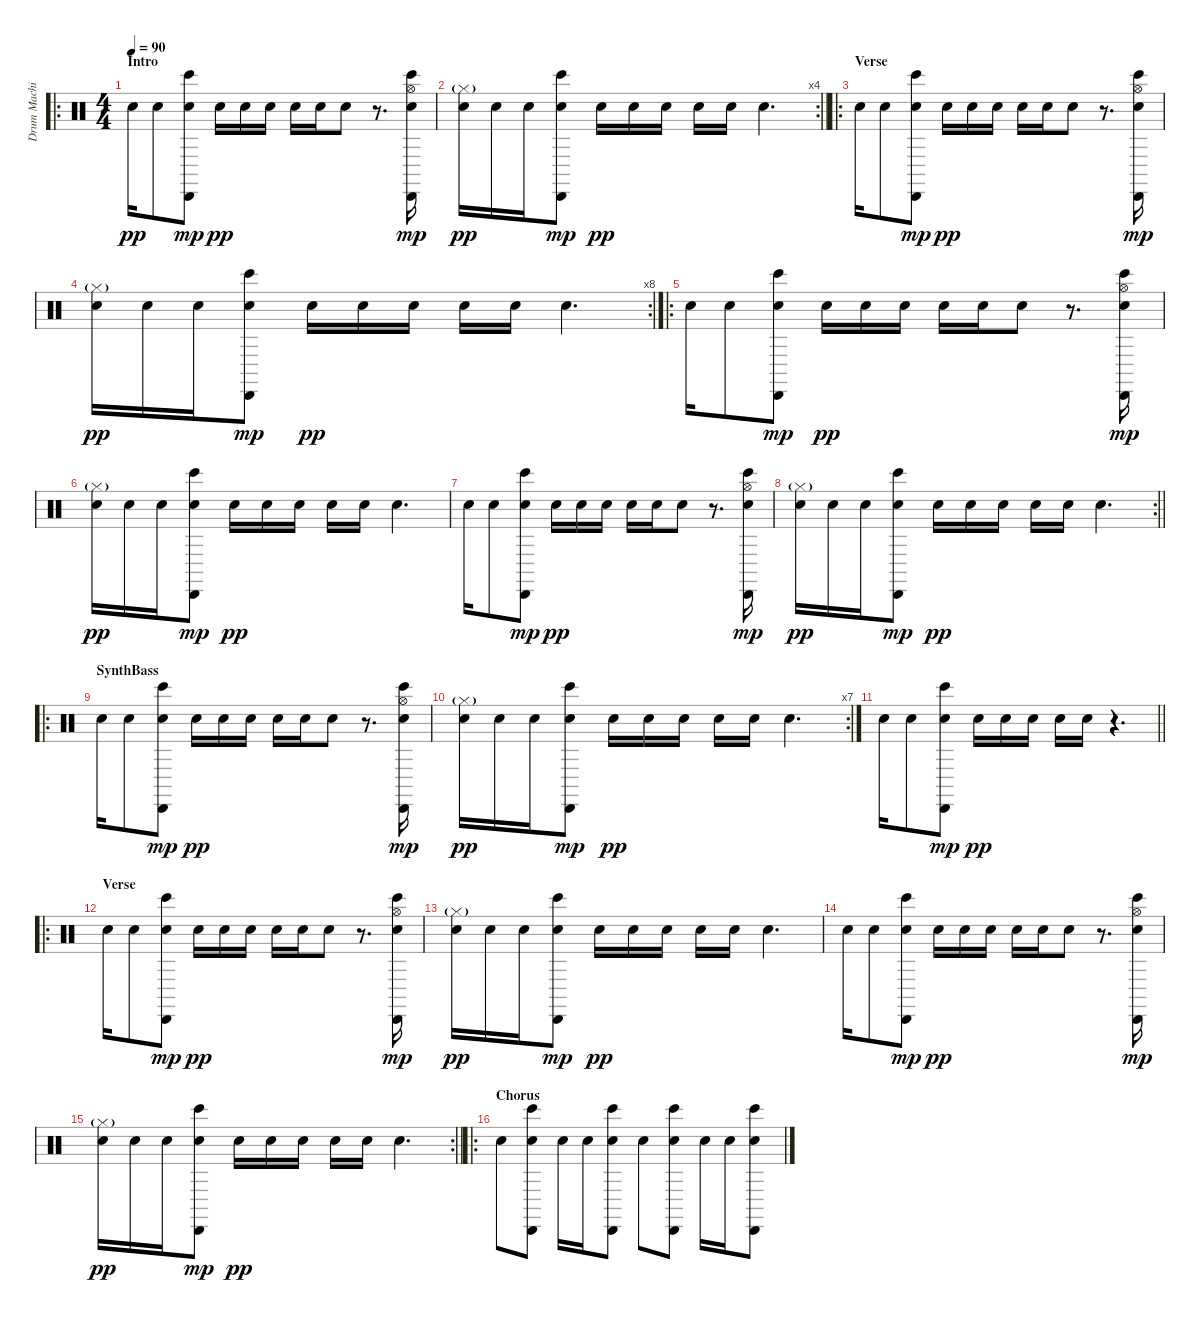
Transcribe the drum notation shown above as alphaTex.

\track ("Drum Machine" "Drum Machi") {instrument percussion}
\staff {score}
\articulation defaults
\ro
\ts (4 4)
\section ("" "Intro")
\tempo 90
\clef neutral
\ks c "Hand Clap (hit)".16{dy pp} "Hand Clap (hit)".8
("Hand Clap (hit)" "Cabasa (hit)" "Bongo High (hit)").8{dy mp} "Hand Clap (hit)".16{dy pp} "Hand Clap (hit)".16 "Hand Clap (hit)".16 "Hand Clap (hit)".16 "Hand Clap (hit)".16 "Hand Clap (hit)".8 r.8{d} ("Hi-Hat (open)" "Hand Clap (hit)" "Cabasa (hit)" "Bongo High (hit)").16{dy mp} |
\rc 4
\barLineRight lightlight
("Hi-Hat (closed)"{g} "Hand Clap (hit)").16{dy pp} "Hand Clap (hit)".16 "Hand Clap (hit)".16 ("Hand Clap (hit)" "Cabasa (hit)" "Bongo High (hit)").8{dy mp} "Hand Clap (hit)".16{dy pp} "Hand Clap (hit)".16 "Hand Clap (hit)".16 "Hand Clap (hit)".16 "Hand Clap (hit)".16 "Hand Clap (hit)".4{d} |
\ro
\section ("" "Verse")
"Hand Clap (hit)".16 "Hand Clap (hit)".8 ("Hand Clap (hit)" "Cabasa (hit)" "Bongo High (hit)").8{dy mp} "Hand Clap (hit)".16{dy pp} "Hand Clap (hit)".16 "Hand Clap (hit)".16 "Hand Clap (hit)".16 "Hand Clap (hit)".16 "Hand Clap (hit)".8 r.8{d} ("Hi-Hat (open)" "Hand Clap (hit)" "Cabasa (hit)" "Bongo High (hit)").16{dy mp} |
\rc 8
("Hi-Hat (closed)"{g} "Hand Clap (hit)").16{dy pp} "Hand Clap (hit)".16 "Hand Clap (hit)".16 ("Hand Clap (hit)" "Cabasa (hit)" "Bongo High (hit)").8{dy mp} "Hand Clap (hit)".16{dy pp} "Hand Clap (hit)".16 "Hand Clap (hit)".16 "Hand Clap (hit)".16 "Hand Clap (hit)".16 "Hand Clap (hit)".4{d} |
\ro "Hand Clap (hit)".16 "Hand Clap (hit)".8
("Hand Clap (hit)" "Cabasa (hit)" "Bongo High (hit)").8{dy mp} "Hand Clap (hit)".16{dy pp} "Hand Clap (hit)".16 "Hand Clap (hit)".16 "Hand Clap (hit)".16 "Hand Clap (hit)".16 "Hand Clap (hit)".8 r.8{d} ("Hi-Hat (open)" "Hand Clap (hit)" "Cabasa (hit)" "Bongo High (hit)").16{dy mp} |
("Hi-Hat (closed)"{g} "Hand Clap (hit)").16{dy pp} "Hand Clap (hit)".16 "Hand Clap (hit)".16 ("Hand Clap (hit)" "Cabasa (hit)" "Bongo High (hit)").8{dy mp} "Hand Clap (hit)".16{dy pp} "Hand Clap (hit)".16 "Hand Clap (hit)".16 "Hand Clap (hit)".16 "Hand Clap (hit)".16 "Hand Clap (hit)".4{d} |
"Hand Clap (hit)".16 "Hand Clap (hit)".8 ("Hand Clap (hit)" "Cabasa (hit)" "Bongo High (hit)").8{dy mp} "Hand Clap (hit)".16{dy pp} "Hand Clap (hit)".16 "Hand Clap (hit)".16 "Hand Clap (hit)".16 "Hand Clap (hit)".16 "Hand Clap (hit)".8 r.8{d} ("Hi-Hat (open)" "Hand Clap (hit)" "Cabasa (hit)" "Bongo High (hit)").16{dy mp} |
\rc 2
\barLineRight lightlight
("Hi-Hat (closed)"{g} "Hand Clap (hit)").16{dy pp} "Hand Clap (hit)".16 "Hand Clap (hit)".16 ("Hand Clap (hit)" "Cabasa (hit)" "Bongo High (hit)").8{dy mp} "Hand Clap (hit)".16{dy pp} "Hand Clap (hit)".16 "Hand Clap (hit)".16 "Hand Clap (hit)".16 "Hand Clap (hit)".16 "Hand Clap (hit)".4{d} |
\ro
\section ("" "SynthBass")
"Hand Clap (hit)".16 "Hand Clap (hit)".8 ("Hand Clap (hit)" "Cabasa (hit)" "Bongo High (hit)").8{dy mp} "Hand Clap (hit)".16{dy pp} "Hand Clap (hit)".16 "Hand Clap (hit)".16 "Hand Clap (hit)".16 "Hand Clap (hit)".16 "Hand Clap (hit)".8 r.8{d} ("Hi-Hat (open)" "Hand Clap (hit)" "Cabasa (hit)" "Bongo High (hit)").16{dy mp} |
\rc 7
("Hi-Hat (closed)"{g} "Hand Clap (hit)").16{dy pp} "Hand Clap (hit)".16 "Hand Clap (hit)".16 ("Hand Clap (hit)" "Cabasa (hit)" "Bongo High (hit)").8{dy mp} "Hand Clap (hit)".16{dy pp} "Hand Clap (hit)".16 "Hand Clap (hit)".16 "Hand Clap (hit)".16 "Hand Clap (hit)".16 "Hand Clap (hit)".4{d} |
\barLineRight lightlight "Hand Clap (hit)".16 "Hand Clap (hit)".8
("Hand Clap (hit)" "Cabasa (hit)" "Bongo High (hit)").8{dy mp} "Hand Clap (hit)".16{dy pp} "Hand Clap (hit)".16 "Hand Clap (hit)".16 "Hand Clap (hit)".16 "Hand Clap (hit)".16 r.4{d} |
\ro
\section ("" "Verse")
"Hand Clap (hit)".16 "Hand Clap (hit)".8 ("Hand Clap (hit)" "Cabasa (hit)" "Bongo High (hit)").8{dy mp} "Hand Clap (hit)".16{dy pp} "Hand Clap (hit)".16 "Hand Clap (hit)".16 "Hand Clap (hit)".16 "Hand Clap (hit)".16 "Hand Clap (hit)".8 r.8{d} ("Hi-Hat (open)" "Hand Clap (hit)" "Cabasa (hit)" "Bongo High (hit)").16{dy mp} |
("Hi-Hat (closed)"{g} "Hand Clap (hit)").16{dy pp} "Hand Clap (hit)".16 "Hand Clap (hit)".16 ("Hand Clap (hit)" "Cabasa (hit)" "Bongo High (hit)").8{dy mp} "Hand Clap (hit)".16{dy pp} "Hand Clap (hit)".16 "Hand Clap (hit)".16 "Hand Clap (hit)".16 "Hand Clap (hit)".16 "Hand Clap (hit)".4{d} |
"Hand Clap (hit)".16 "Hand Clap (hit)".8 ("Hand Clap (hit)" "Cabasa (hit)" "Bongo High (hit)").8{dy mp} "Hand Clap (hit)".16{dy pp} "Hand Clap (hit)".16 "Hand Clap (hit)".16 "Hand Clap (hit)".16 "Hand Clap (hit)".16 "Hand Clap (hit)".8 r.8{d} ("Hi-Hat (open)" "Hand Clap (hit)" "Cabasa (hit)" "Bongo High (hit)").16{dy mp} |
\rc 2
\barLineRight lightlight
("Hi-Hat (closed)"{g} "Hand Clap (hit)").16{dy pp} "Hand Clap (hit)".16 "Hand Clap (hit)".16 ("Hand Clap (hit)" "Cabasa (hit)" "Bongo High (hit)").8{dy mp} "Hand Clap (hit)".16{dy pp} "Hand Clap (hit)".16 "Hand Clap (hit)".16 "Hand Clap (hit)".16 "Hand Clap (hit)".16 "Hand Clap (hit)".4{d} |
\ro
\section ("" "Chorus")
"Hand Clap (hit)".8 ("Hand Clap (hit)" "Cabasa (hit)" "Bongo High (hit)").8 "Hand Clap (hit)".16 "Hand Clap (hit)".16 ("Hand Clap (hit)" "Cabasa (hit)" "Bongo High (hit)").8 "Hand Clap (hit)".8 ("Hand Clap (hit)" "Cabasa (hit)" "Bongo High (hit)").8 "Hand Clap (hit)".16 "Hand Clap (hit)".16 ("Hand Clap (hit)" "Cabasa (hit)" "Bongo High (hit)").8
